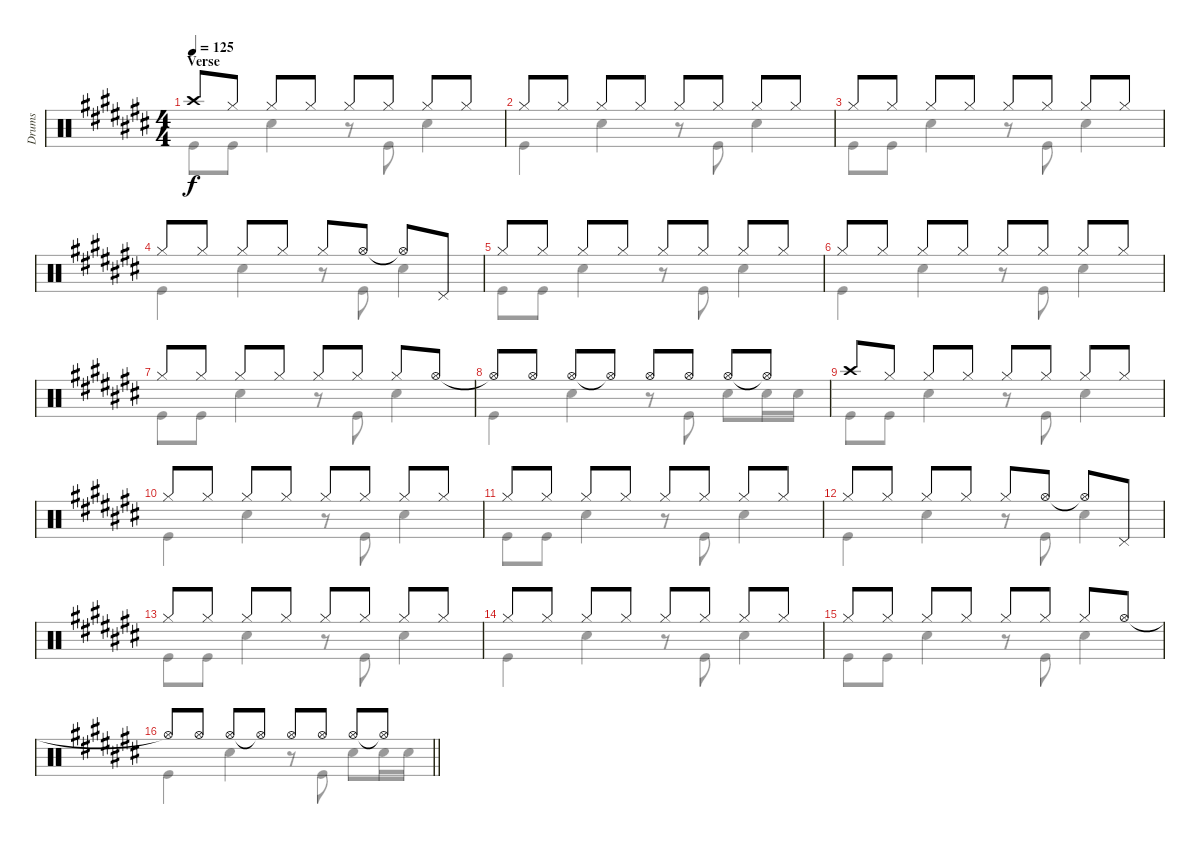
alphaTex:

\track ("Drums" "Drums") {instrument percussion}
\staff {score}
\articulation defaults
\voice
\ts (4 4)
\section ("" "Verse")
\tempo 125
\clef neutral
\ks c# "Crash high (hit)".8{dy f} "Hi-Hat (closed)".8 "Hi-Hat (closed)".8 "Hi-Hat (closed)".8 "Hi-Hat (closed)".8 "Hi-Hat (closed)".8 "Hi-Hat (closed)".8 "Hi-Hat (closed)".8
|
"Hi-Hat (closed)".8 "Hi-Hat (closed)".8 "Hi-Hat (closed)".8 "Hi-Hat (closed)".8 "Hi-Hat (closed)".8 "Hi-Hat (closed)".8 "Hi-Hat (closed)".8 "Hi-Hat (closed)".8 |
"Hi-Hat (closed)".8 "Hi-Hat (closed)".8 "Hi-Hat (closed)".8 "Hi-Hat (closed)".8 "Hi-Hat (closed)".8 "Hi-Hat (closed)".8 "Hi-Hat (closed)".8 "Hi-Hat (closed)".8 |
"Hi-Hat (closed)".8 "Hi-Hat (closed)".8 "Hi-Hat (closed)".8 "Hi-Hat (closed)".8 "Hi-Hat (closed)".8 "Hi-Hat (open)".8 "Hi-Hat (open)"{t}.8 "Pedal Hi-Hat (hit)".8 |
"Hi-Hat (closed)".8 "Hi-Hat (closed)".8 "Hi-Hat (closed)".8 "Hi-Hat (closed)".8 "Hi-Hat (closed)".8 "Hi-Hat (closed)".8 "Hi-Hat (closed)".8 "Hi-Hat (closed)".8 |
"Hi-Hat (closed)".8 "Hi-Hat (closed)".8 "Hi-Hat (closed)".8 "Hi-Hat (closed)".8 "Hi-Hat (closed)".8 "Hi-Hat (closed)".8 "Hi-Hat (closed)".8 "Hi-Hat (closed)".8 |
"Hi-Hat (closed)".8 "Hi-Hat (closed)".8 "Hi-Hat (closed)".8 "Hi-Hat (closed)".8 "Hi-Hat (closed)".8 "Hi-Hat (closed)".8 "Hi-Hat (closed)".8 "Hi-Hat (open)".8 |
"Hi-Hat (open)"{t}.8 "Hi-Hat (open)".8 "Hi-Hat (open)".8 "Hi-Hat (open)"{t}.8 "Hi-Hat (open)".8 "Hi-Hat (open)".8 "Hi-Hat (open)".8 "Hi-Hat (open)"{t}.8 |
"Crash high (hit)".8 "Hi-Hat (closed)".8 "Hi-Hat (closed)".8 "Hi-Hat (closed)".8 "Hi-Hat (closed)".8 "Hi-Hat (closed)".8 "Hi-Hat (closed)".8 "Hi-Hat (closed)".8 |
"Hi-Hat (closed)".8 "Hi-Hat (closed)".8 "Hi-Hat (closed)".8 "Hi-Hat (closed)".8 "Hi-Hat (closed)".8 "Hi-Hat (closed)".8 "Hi-Hat (closed)".8 "Hi-Hat (closed)".8 |
"Hi-Hat (closed)".8 "Hi-Hat (closed)".8 "Hi-Hat (closed)".8 "Hi-Hat (closed)".8 "Hi-Hat (closed)".8 "Hi-Hat (closed)".8 "Hi-Hat (closed)".8 "Hi-Hat (closed)".8 |
"Hi-Hat (closed)".8 "Hi-Hat (closed)".8 "Hi-Hat (closed)".8 "Hi-Hat (closed)".8 "Hi-Hat (closed)".8 "Hi-Hat (open)".8 "Hi-Hat (open)"{t}.8 "Pedal Hi-Hat (hit)".8 |
"Hi-Hat (closed)".8 "Hi-Hat (closed)".8 "Hi-Hat (closed)".8 "Hi-Hat (closed)".8 "Hi-Hat (closed)".8 "Hi-Hat (closed)".8 "Hi-Hat (closed)".8 "Hi-Hat (closed)".8 |
"Hi-Hat (closed)".8 "Hi-Hat (closed)".8 "Hi-Hat (closed)".8 "Hi-Hat (closed)".8 "Hi-Hat (closed)".8 "Hi-Hat (closed)".8 "Hi-Hat (closed)".8 "Hi-Hat (closed)".8 |
"Hi-Hat (closed)".8 "Hi-Hat (closed)".8 "Hi-Hat (closed)".8 "Hi-Hat (closed)".8 "Hi-Hat (closed)".8 "Hi-Hat (closed)".8 "Hi-Hat (closed)".8 "Hi-Hat (open)".8 |
\barLineRight lightlight "Hi-Hat (open)"{t}.8 "Hi-Hat (open)".8 "Hi-Hat (open)".8 "Hi-Hat (open)"{t}.8 "Hi-Hat (open)".8 "Hi-Hat (open)".8 "Hi-Hat (open)".8 "Hi-Hat (open)"{t}.8
\voice
\clef neutral
\ottava regular
\simile none
\ks c# "Kick (hit)".8{dy f} "Kick (hit)".8 "Snare (hit) 2".4
r.8 "Kick (hit)".8 "Snare (hit) 2".4 |
"Kick (hit)".4 "Snare (hit) 2".4 r.8 "Kick (hit)".8 "Snare (hit) 2".4 |
"Kick (hit)".8 "Kick (hit)".8 "Snare (hit) 2".4 r.8 "Kick (hit)".8 "Snare (hit) 2".4 |
"Kick (hit)".4 "Snare (hit) 2".4 r.8 "Kick (hit)".8 "Snare (hit) 2".4 |
"Kick (hit)".8 "Kick (hit)".8 "Snare (hit) 2".4 r.8 "Kick (hit)".8 "Snare (hit) 2".4 |
"Kick (hit)".4 "Snare (hit) 2".4 r.8 "Kick (hit)".8 "Snare (hit) 2".4 |
"Kick (hit)".8 "Kick (hit)".8 "Snare (hit) 2".4 r.8 "Kick (hit)".8 "Snare (hit) 2".4 |
"Kick (hit)".4 "Snare (hit) 2".4 r.8 "Kick (hit)".8 "Snare (hit) 2".8 "Snare (hit) 2".16 "Snare (hit) 2".16 |
"Kick (hit)".8 "Kick (hit)".8 "Snare (hit) 2".4 r.8 "Kick (hit)".8 "Snare (hit) 2".4 |
"Kick (hit)".4 "Snare (hit) 2".4 r.8 "Kick (hit)".8 "Snare (hit) 2".4 |
"Kick (hit)".8 "Kick (hit)".8 "Snare (hit) 2".4 r.8 "Kick (hit)".8 "Snare (hit) 2".4 |
"Kick (hit)".4 "Snare (hit) 2".4 r.8 "Kick (hit)".8 "Snare (hit) 2".4 |
"Kick (hit)".8 "Kick (hit)".8 "Snare (hit) 2".4 r.8 "Kick (hit)".8 "Snare (hit) 2".4 |
"Kick (hit)".4 "Snare (hit) 2".4 r.8 "Kick (hit)".8 "Snare (hit) 2".4 |
"Kick (hit)".8 "Kick (hit)".8 "Snare (hit) 2".4 r.8 "Kick (hit)".8 "Snare (hit) 2".4 |
\barLineRight lightlight "Kick (hit)".4 "Snare (hit) 2".4
r.8 "Kick (hit)".8 "Snare (hit) 2".8 "Snare (hit) 2".16 "Snare (hit) 2".16
